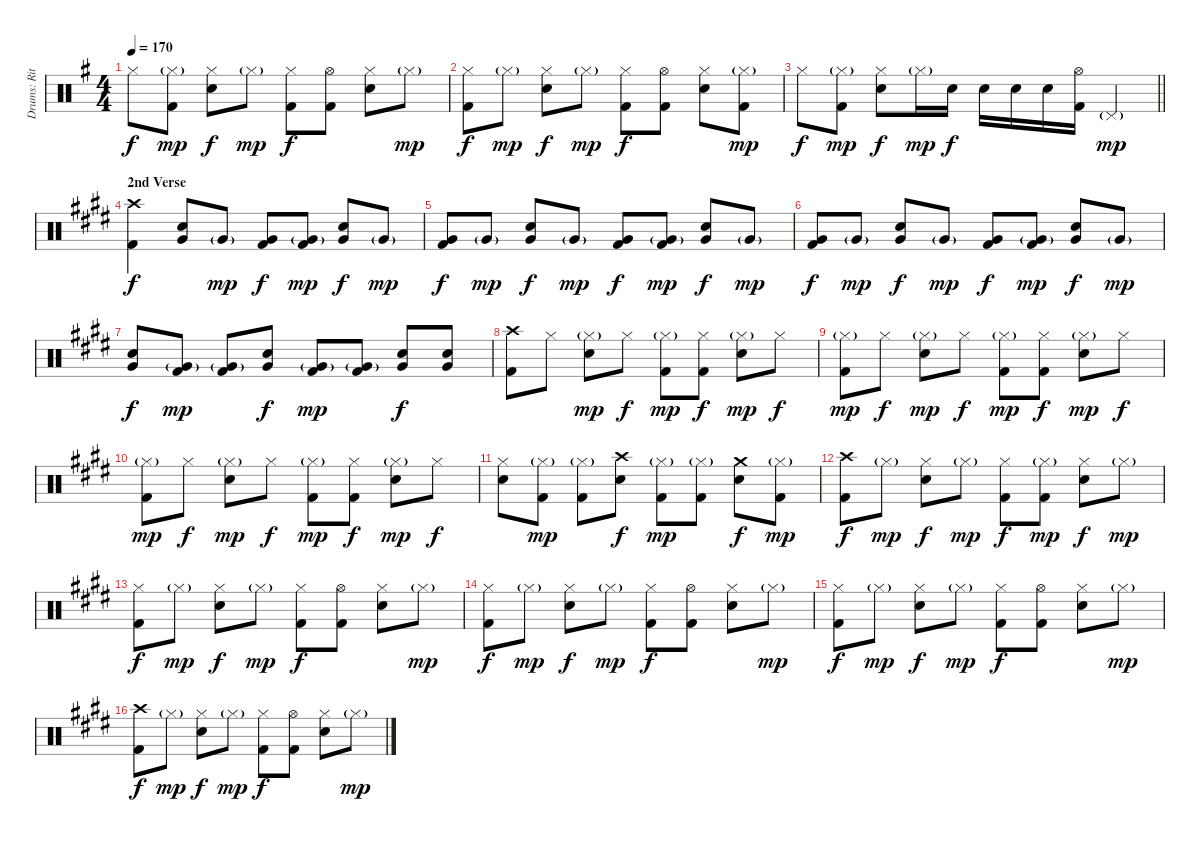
\track ("Drums: Ritsu Tainaka" "Drums: Rit") {instrument percussion}
\staff {score}
\articulation defaults
\ts (4 4)
\tempo 170
\clef neutral
\ks eminor "Hi-Hat (closed)".8{dy f}
("Hi-Hat (closed)"{g} "Kick (hit) 2").8{dy mp} ("Hi-Hat (closed)" "Electric Snare (hit)").8{dy f} "Hi-Hat (closed)"{g}.8{dy mp} ("Hi-Hat (closed)" "Kick (hit) 2").8{dy f} ("Hi-Hat (open)" "Kick (hit) 2").8 ("Hi-Hat (closed)" "Electric Snare (hit)").8 "Hi-Hat (closed)"{g}.8{dy mp} |
("Hi-Hat (closed)" "Kick (hit) 2").8{dy f} "Hi-Hat (closed)"{g}.8{dy mp} ("Hi-Hat (closed)" "Electric Snare (hit)").8{dy f} "Hi-Hat (closed)"{g}.8{dy mp} ("Hi-Hat (closed)" "Kick (hit) 2").8{dy f} ("Hi-Hat (open)" "Kick (hit) 2").8 ("Hi-Hat (closed)" "Electric Snare (hit)").8 ("Hi-Hat (closed)"{g} "Kick (hit) 2").8{dy mp} |
\barLineRight lightlight "Hi-Hat (closed)".8{dy f}
("Hi-Hat (closed)"{g} "Kick (hit) 2").8{dy mp} ("Hi-Hat (closed)" "Electric Snare (hit)").8{dy f} "Hi-Hat (closed)"{g}.16{dy mp} "Electric Snare (hit)".16{dy f} "Electric Snare (hit)".16 "Electric Snare (hit)".16 "Electric Snare (hit)".16 ("Hi-Hat (open)" "Kick (hit) 2").16 "Pedal Hi-Hat (hit)"{g}.4{dy mp} |
\section ("" "2nd Verse")
\ks e
("Crash high (hit)" "Kick (hit) 2").4{dy f} ("Electric Snare (hit)" "Very Low Tom (hit)").8 "Very Low Tom (hit)"{g}.8{dy mp} ("Very Low Tom (hit)" "Kick (hit) 2").8{dy f} ("Very Low Tom (hit)"{g} "Kick (hit) 2").8{dy mp} ("Electric Snare (hit)" "Very Low Tom (hit)").8{dy f} "Very Low Tom (hit)"{g}.8{dy mp} |
("Very Low Tom (hit)" "Kick (hit) 2").8{dy f} "Very Low Tom (hit)"{g}.8{dy mp} ("Electric Snare (hit)" "Very Low Tom (hit)").8{dy f} "Very Low Tom (hit)"{g}.8{dy mp} ("Very Low Tom (hit)" "Kick (hit) 2").8{dy f} ("Very Low Tom (hit)"{g} "Kick (hit) 2").8{dy mp} ("Electric Snare (hit)" "Very Low Tom (hit)").8{dy f} "Very Low Tom (hit)"{g}.8{dy mp} |
("Very Low Tom (hit)" "Kick (hit) 2").8{dy f} "Very Low Tom (hit)"{g}.8{dy mp} ("Electric Snare (hit)" "Very Low Tom (hit)").8{dy f} "Very Low Tom (hit)"{g}.8{dy mp} ("Very Low Tom (hit)" "Kick (hit) 2").8{dy f} ("Very Low Tom (hit)"{g} "Kick (hit) 2").8{dy mp} ("Electric Snare (hit)" "Very Low Tom (hit)").8{dy f} "Very Low Tom (hit)"{g}.8{dy mp} |
("Electric Snare (hit)" "Very Low Tom (hit)").8{dy f} ("Very Low Tom (hit)"{g} "Kick (hit) 2").8{dy mp} ("Very Low Tom (hit)"{g} "Kick (hit) 2").8 ("Electric Snare (hit)" "Very Low Tom (hit)").8{dy f} ("Very Low Tom (hit)"{g} "Kick (hit) 2").8{dy mp} ("Very Low Tom (hit)"{g} "Kick (hit) 2").8 ("Electric Snare (hit)" "Very Low Tom (hit)").8{dy f} ("Electric Snare (hit)" "Very Low Tom (hit)").8 |
("Crash high (hit)" "Kick (hit) 2").8 "Hi-Hat (closed)".8 ("Hi-Hat (closed)"{g} "Electric Snare (hit)").8{dy mp} "Hi-Hat (closed)".8{dy f} ("Hi-Hat (closed)"{g} "Kick (hit) 2").8{dy mp} ("Hi-Hat (closed)" "Kick (hit) 2").8{dy f} ("Hi-Hat (closed)"{g} "Electric Snare (hit)").8{dy mp} "Hi-Hat (closed)".8{dy f} |
("Hi-Hat (closed)"{g} "Kick (hit) 2").8{dy mp} "Hi-Hat (closed)".8{dy f} ("Hi-Hat (closed)"{g} "Electric Snare (hit)").8{dy mp} "Hi-Hat (closed)".8{dy f} ("Hi-Hat (closed)"{g} "Kick (hit) 2").8{dy mp} ("Hi-Hat (closed)" "Kick (hit) 2").8{dy f} ("Hi-Hat (closed)"{g} "Electric Snare (hit)").8{dy mp} "Hi-Hat (closed)".8{dy f} |
("Hi-Hat (closed)"{g} "Kick (hit) 2").8{dy mp} "Hi-Hat (closed)".8{dy f} ("Hi-Hat (closed)"{g} "Electric Snare (hit)").8{dy mp} "Hi-Hat (closed)".8{dy f} ("Hi-Hat (closed)"{g} "Kick (hit) 2").8{dy mp} ("Hi-Hat (closed)" "Kick (hit) 2").8{dy f} ("Hi-Hat (closed)"{g} "Electric Snare (hit)").8{dy mp} "Hi-Hat (closed)".8{dy f} |
("Hi-Hat (closed)" "Electric Snare (hit)").8 ("Hi-Hat (closed)"{g} "Kick (hit) 2").8{dy mp} ("Hi-Hat (closed)"{g} "Kick (hit) 2").8 ("Crash high (hit)" "Electric Snare (hit)").8{dy f} ("Hi-Hat (closed)"{g} "Kick (hit) 2").8{dy mp} ("Hi-Hat (closed)"{g} "Kick (hit) 2").8 ("Crash medium (hit)" "Electric Snare (hit)").8{dy f} ("Hi-Hat (closed)"{g} "Kick (hit) 2").8{dy mp} |
("Crash high (hit)" "Kick (hit) 2").8{dy f} "Hi-Hat (closed)"{g}.8{dy mp} ("Hi-Hat (closed)" "Electric Snare (hit)").8{dy f} "Hi-Hat (closed)"{g}.8{dy mp} ("Hi-Hat (closed)" "Kick (hit) 2").8{dy f} ("Hi-Hat (closed)"{g} "Kick (hit) 2").8{dy mp} ("Hi-Hat (closed)" "Electric Snare (hit)").8{dy f} "Hi-Hat (closed)"{g}.8{dy mp} |
("Hi-Hat (closed)" "Kick (hit) 2").8{dy f} "Hi-Hat (closed)"{g}.8{dy mp} ("Hi-Hat (closed)" "Electric Snare (hit)").8{dy f} "Hi-Hat (closed)"{g}.8{dy mp} ("Hi-Hat (closed)" "Kick (hit) 2").8{dy f} ("Hi-Hat (open)" "Kick (hit) 2").8 ("Hi-Hat (closed)" "Electric Snare (hit)").8 "Hi-Hat (closed)"{g}.8{dy mp} |
("Hi-Hat (closed)" "Kick (hit) 2").8{dy f} "Hi-Hat (closed)"{g}.8{dy mp} ("Hi-Hat (closed)" "Electric Snare (hit)").8{dy f} "Hi-Hat (closed)"{g}.8{dy mp} ("Hi-Hat (closed)" "Kick (hit) 2").8{dy f} ("Hi-Hat (open)" "Kick (hit) 2").8 ("Hi-Hat (closed)" "Electric Snare (hit)").8 "Hi-Hat (closed)"{g}.8{dy mp} |
("Hi-Hat (closed)" "Kick (hit) 2").8{dy f} "Hi-Hat (closed)"{g}.8{dy mp} ("Hi-Hat (closed)" "Electric Snare (hit)").8{dy f} "Hi-Hat (closed)"{g}.8{dy mp} ("Hi-Hat (closed)" "Kick (hit) 2").8{dy f} ("Hi-Hat (open)" "Kick (hit) 2").8 ("Hi-Hat (closed)" "Electric Snare (hit)").8 "Hi-Hat (closed)"{g}.8{dy mp} |
("Crash high (hit)" "Kick (hit) 2").8{dy f} "Hi-Hat (closed)"{g}.8{dy mp} ("Hi-Hat (closed)" "Electric Snare (hit)").8{dy f} "Hi-Hat (closed)"{g}.8{dy mp} ("Hi-Hat (closed)" "Kick (hit) 2").8{dy f} ("Hi-Hat (open)" "Kick (hit) 2").8 ("Hi-Hat (closed)" "Electric Snare (hit)").8 "Hi-Hat (closed)"{g}.8{dy mp}
